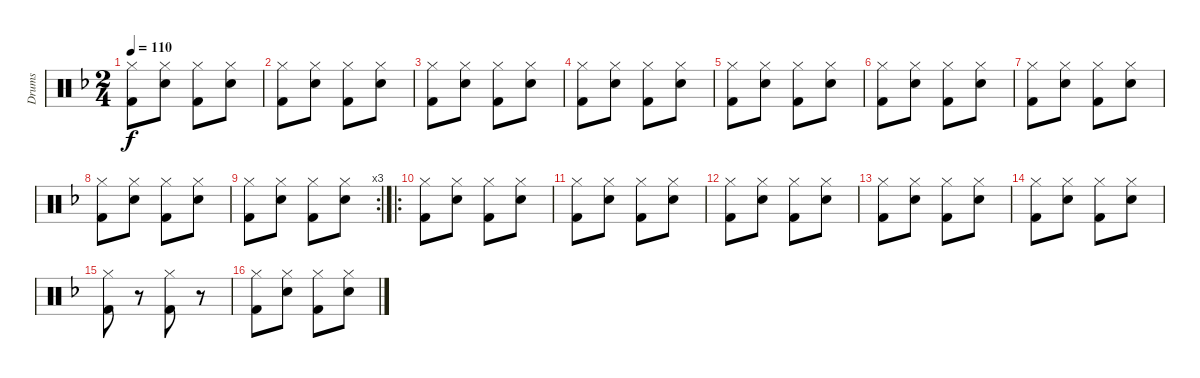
\track ("Drums" "Drums") {instrument percussion}
\staff {score}
\articulation defaults
\ts (2 4)
\tempo 110
\clef neutral
\ks dminor
("Hi-Hat (closed)" "Kick (hit) 2").8{dy f} ("Hi-Hat (closed)" "Electric Snare (hit)").8 ("Hi-Hat (closed)" "Kick (hit) 2").8 ("Hi-Hat (closed)" "Electric Snare (hit)").8 |
("Hi-Hat (closed)" "Kick (hit) 2").8 ("Hi-Hat (closed)" "Electric Snare (hit)").8 ("Hi-Hat (closed)" "Kick (hit) 2").8 ("Hi-Hat (closed)" "Electric Snare (hit)").8 |
("Hi-Hat (closed)" "Kick (hit) 2").8 ("Hi-Hat (closed)" "Electric Snare (hit)").8 ("Hi-Hat (closed)" "Kick (hit) 2").8 ("Hi-Hat (closed)" "Electric Snare (hit)").8 |
("Hi-Hat (closed)" "Kick (hit) 2").8 ("Hi-Hat (closed)" "Electric Snare (hit)").8 ("Hi-Hat (closed)" "Kick (hit) 2").8 ("Hi-Hat (closed)" "Electric Snare (hit)").8 |
("Hi-Hat (closed)" "Kick (hit) 2").8 ("Hi-Hat (closed)" "Electric Snare (hit)").8 ("Hi-Hat (closed)" "Kick (hit) 2").8 ("Hi-Hat (closed)" "Electric Snare (hit)").8 |
("Hi-Hat (closed)" "Kick (hit) 2").8 ("Hi-Hat (closed)" "Electric Snare (hit)").8 ("Hi-Hat (closed)" "Kick (hit) 2").8 ("Hi-Hat (closed)" "Electric Snare (hit)").8 |
("Hi-Hat (closed)" "Kick (hit) 2").8 ("Hi-Hat (closed)" "Electric Snare (hit)").8 ("Hi-Hat (closed)" "Kick (hit) 2").8 ("Hi-Hat (closed)" "Electric Snare (hit)").8 |
("Hi-Hat (closed)" "Kick (hit) 2").8 ("Hi-Hat (closed)" "Electric Snare (hit)").8 ("Hi-Hat (closed)" "Kick (hit) 2").8 ("Hi-Hat (closed)" "Electric Snare (hit)").8 |
\rc 3
("Hi-Hat (closed)" "Kick (hit) 2").8 ("Hi-Hat (closed)" "Electric Snare (hit)").8 ("Hi-Hat (closed)" "Kick (hit) 2").8 ("Hi-Hat (closed)" "Electric Snare (hit)").8 |
\ro
("Hi-Hat (closed)" "Kick (hit) 2").8 ("Hi-Hat (closed)" "Electric Snare (hit)").8 ("Hi-Hat (closed)" "Kick (hit) 2").8 ("Hi-Hat (closed)" "Electric Snare (hit)").8 |
("Hi-Hat (closed)" "Kick (hit) 2").8 ("Hi-Hat (closed)" "Electric Snare (hit)").8 ("Hi-Hat (closed)" "Kick (hit) 2").8 ("Hi-Hat (closed)" "Electric Snare (hit)").8 |
("Hi-Hat (closed)" "Kick (hit) 2").8 ("Hi-Hat (closed)" "Electric Snare (hit)").8 ("Hi-Hat (closed)" "Kick (hit) 2").8 ("Hi-Hat (closed)" "Electric Snare (hit)").8 |
("Hi-Hat (closed)" "Kick (hit) 2").8 ("Hi-Hat (closed)" "Electric Snare (hit)").8 ("Hi-Hat (closed)" "Kick (hit) 2").8 ("Hi-Hat (closed)" "Electric Snare (hit)").8 |
("Hi-Hat (closed)" "Kick (hit) 2").8 ("Hi-Hat (closed)" "Electric Snare (hit)").8 ("Hi-Hat (closed)" "Kick (hit) 2").8 ("Hi-Hat (closed)" "Electric Snare (hit)").8 |
("Hi-Hat (closed)" "Kick (hit) 2").8 r.8 ("Hi-Hat (closed)" "Kick (hit) 2").8 r.8 |
("Hi-Hat (closed)" "Kick (hit) 2").8 ("Hi-Hat (closed)" "Electric Snare (hit)").8 ("Hi-Hat (closed)" "Kick (hit) 2").8 ("Hi-Hat (closed)" "Electric Snare (hit)").8
